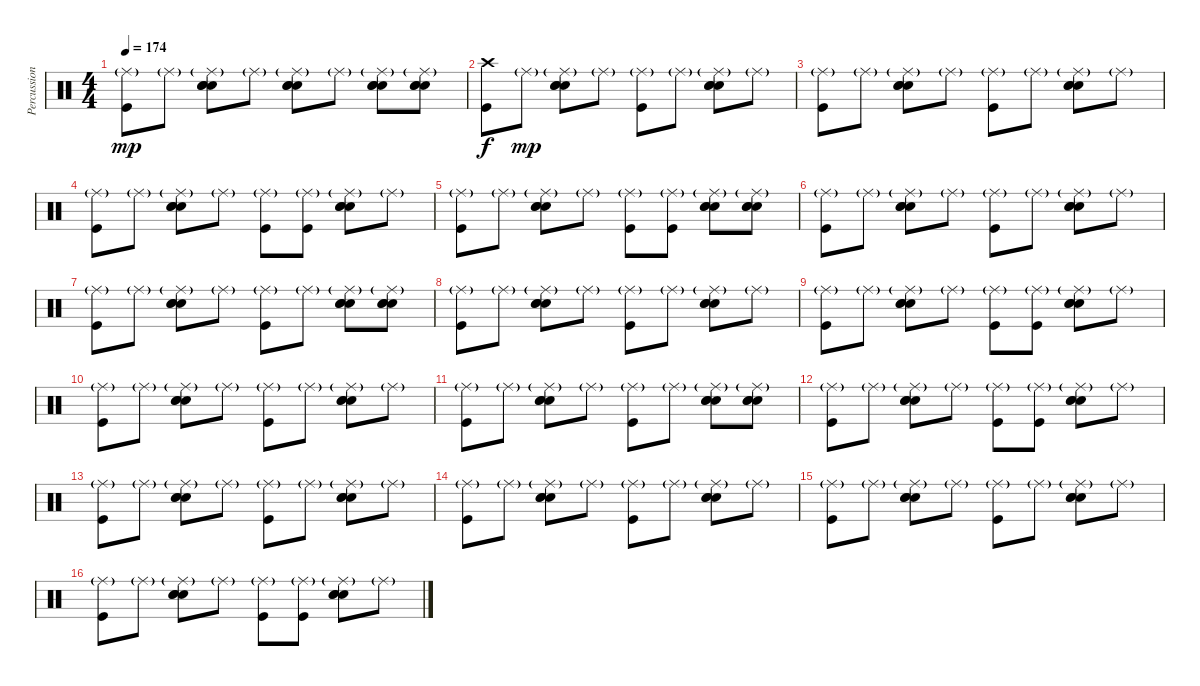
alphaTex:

\track ("Percussion" "Percussion") {instrument percussion}
\staff {score}
\articulation defaults
\ts (4 4)
\tempo 174
\clef neutral
\ks c
("Ride (middle)"{g} "Kick (hit)").8{dy mp} "Ride (middle)"{g}.8 ("Ride (middle)"{g} "Snare (hit) 2" "Electric Snare (hit)" "Electric Snare (hit)").8 "Ride (middle)"{g}.8 ("Ride (middle)"{g} "Snare (hit) 2" "Electric Snare (hit)" "Electric Snare (hit)").8 "Ride (middle)"{g}.8 ("Ride (middle)"{g} "Snare (hit) 2" "Electric Snare (hit)" "Electric Snare (hit)").8 ("Ride (middle)"{g} "Snare (hit) 2" "Electric Snare (hit)" "Electric Snare (hit)").8 |
("Crash high (hit)" "Kick (hit)").8{dy f} "Ride (middle)"{g}.8{dy mp} ("Ride (middle)"{g} "Snare (hit) 2" "Electric Snare (hit)" "Electric Snare (hit)").8 "Ride (middle)"{g}.8 ("Ride (middle)"{g} "Kick (hit)").8 "Ride (middle)"{g}.8 ("Ride (middle)"{g} "Snare (hit) 2" "Electric Snare (hit)" "Electric Snare (hit)").8 "Ride (middle)"{g}.8 |
("Ride (middle)"{g} "Kick (hit)").8 "Ride (middle)"{g}.8 ("Ride (middle)"{g} "Snare (hit) 2" "Electric Snare (hit)" "Electric Snare (hit)").8 "Ride (middle)"{g}.8 ("Ride (middle)"{g} "Kick (hit)").8 "Ride (middle)"{g}.8 ("Ride (middle)"{g} "Snare (hit) 2" "Electric Snare (hit)" "Electric Snare (hit)").8 "Ride (middle)"{g}.8 |
("Ride (middle)"{g} "Kick (hit)").8 "Ride (middle)"{g}.8 ("Ride (middle)"{g} "Snare (hit) 2" "Electric Snare (hit)" "Electric Snare (hit)").8 "Ride (middle)"{g}.8 ("Ride (middle)"{g} "Kick (hit)").8 ("Ride (middle)"{g} "Kick (hit)").8 ("Ride (middle)"{g} "Snare (hit) 2" "Electric Snare (hit)" "Electric Snare (hit)").8 "Ride (middle)"{g}.8 |
("Ride (middle)"{g} "Kick (hit)").8 "Ride (middle)"{g}.8 ("Ride (middle)"{g} "Snare (hit) 2" "Electric Snare (hit)" "Electric Snare (hit)").8 "Ride (middle)"{g}.8 ("Ride (middle)"{g} "Kick (hit)").8 ("Ride (middle)"{g} "Kick (hit)").8 ("Ride (middle)"{g} "Snare (hit) 2" "Electric Snare (hit)" "Electric Snare (hit)").8 ("Ride (middle)"{g} "Snare (hit) 2" "Electric Snare (hit)" "Electric Snare (hit)").8 |
("Ride (middle)"{g} "Kick (hit)").8 "Ride (middle)"{g}.8 ("Ride (middle)"{g} "Snare (hit) 2" "Electric Snare (hit)" "Electric Snare (hit)").8 "Ride (middle)"{g}.8 ("Ride (middle)"{g} "Kick (hit)").8 "Ride (middle)"{g}.8 ("Ride (middle)"{g} "Snare (hit) 2" "Electric Snare (hit)" "Electric Snare (hit)").8 "Ride (middle)"{g}.8 |
("Ride (middle)"{g} "Kick (hit)").8 "Ride (middle)"{g}.8 ("Ride (middle)"{g} "Snare (hit) 2" "Electric Snare (hit)" "Electric Snare (hit)").8 "Ride (middle)"{g}.8 ("Ride (middle)"{g} "Kick (hit)").8 "Ride (middle)"{g}.8 ("Ride (middle)"{g} "Snare (hit) 2" "Electric Snare (hit)" "Electric Snare (hit)").8 ("Ride (middle)"{g} "Snare (hit) 2" "Electric Snare (hit)" "Electric Snare (hit)").8 |
("Ride (middle)"{g} "Kick (hit)").8 "Ride (middle)"{g}.8 ("Ride (middle)"{g} "Snare (hit) 2" "Electric Snare (hit)" "Electric Snare (hit)").8 "Ride (middle)"{g}.8 ("Ride (middle)"{g} "Kick (hit)").8 "Ride (middle)"{g}.8 ("Ride (middle)"{g} "Snare (hit) 2" "Electric Snare (hit)" "Electric Snare (hit)").8 "Ride (middle)"{g}.8 |
("Ride (middle)"{g} "Kick (hit)").8 "Ride (middle)"{g}.8 ("Ride (middle)"{g} "Snare (hit) 2" "Electric Snare (hit)" "Electric Snare (hit)").8 "Ride (middle)"{g}.8 ("Ride (middle)"{g} "Kick (hit)").8 ("Ride (middle)"{g} "Kick (hit)").8 ("Ride (middle)"{g} "Snare (hit) 2" "Electric Snare (hit)" "Electric Snare (hit)").8 "Ride (middle)"{g}.8 |
("Ride (middle)"{g} "Kick (hit)").8 "Ride (middle)"{g}.8 ("Ride (middle)"{g} "Snare (hit) 2" "Electric Snare (hit)" "Electric Snare (hit)").8 "Ride (middle)"{g}.8 ("Ride (middle)"{g} "Kick (hit)").8 "Ride (middle)"{g}.8 ("Ride (middle)"{g} "Snare (hit) 2" "Electric Snare (hit)" "Electric Snare (hit)").8 "Ride (middle)"{g}.8 |
("Ride (middle)"{g} "Kick (hit)").8 "Ride (middle)"{g}.8 ("Ride (middle)"{g} "Snare (hit) 2" "Electric Snare (hit)" "Electric Snare (hit)").8 "Ride (middle)"{g}.8 ("Ride (middle)"{g} "Kick (hit)").8 "Ride (middle)"{g}.8 ("Ride (middle)"{g} "Snare (hit) 2" "Electric Snare (hit)" "Electric Snare (hit)").8 ("Ride (middle)"{g} "Snare (hit) 2" "Electric Snare (hit)" "Electric Snare (hit)").8 |
("Ride (middle)"{g} "Kick (hit)").8 "Ride (middle)"{g}.8 ("Ride (middle)"{g} "Snare (hit) 2" "Electric Snare (hit)" "Electric Snare (hit)").8 "Ride (middle)"{g}.8 ("Ride (middle)"{g} "Kick (hit)").8 ("Ride (middle)"{g} "Kick (hit)").8 ("Ride (middle)"{g} "Snare (hit) 2" "Electric Snare (hit)" "Electric Snare (hit)").8 "Ride (middle)"{g}.8 |
("Ride (middle)"{g} "Kick (hit)").8 "Ride (middle)"{g}.8 ("Ride (middle)"{g} "Snare (hit) 2" "Electric Snare (hit)" "Electric Snare (hit)").8 "Ride (middle)"{g}.8 ("Ride (middle)"{g} "Kick (hit)").8 "Ride (middle)"{g}.8 ("Ride (middle)"{g} "Snare (hit) 2" "Electric Snare (hit)" "Electric Snare (hit)").8 "Ride (middle)"{g}.8 |
("Ride (middle)"{g} "Kick (hit)").8 "Ride (middle)"{g}.8 ("Ride (middle)"{g} "Snare (hit) 2" "Electric Snare (hit)" "Electric Snare (hit)").8 "Ride (middle)"{g}.8 ("Ride (middle)"{g} "Kick (hit)").8 "Ride (middle)"{g}.8 ("Ride (middle)"{g} "Snare (hit) 2" "Electric Snare (hit)" "Electric Snare (hit)").8 "Ride (middle)"{g}.8 |
("Ride (middle)"{g} "Kick (hit)").8 "Ride (middle)"{g}.8 ("Ride (middle)"{g} "Snare (hit) 2" "Electric Snare (hit)" "Electric Snare (hit)").8 "Ride (middle)"{g}.8 ("Ride (middle)"{g} "Kick (hit)").8 "Ride (middle)"{g}.8 ("Ride (middle)"{g} "Snare (hit) 2" "Electric Snare (hit)" "Electric Snare (hit)").8 "Ride (middle)"{g}.8 |
("Ride (middle)"{g} "Kick (hit)").8 "Ride (middle)"{g}.8 ("Ride (middle)"{g} "Snare (hit) 2" "Electric Snare (hit)" "Electric Snare (hit)").8 "Ride (middle)"{g}.8 ("Ride (middle)"{g} "Kick (hit)").8 ("Ride (middle)"{g} "Kick (hit)").8 ("Ride (middle)"{g} "Snare (hit) 2" "Electric Snare (hit)" "Electric Snare (hit)").8 "Ride (middle)"{g}.8
